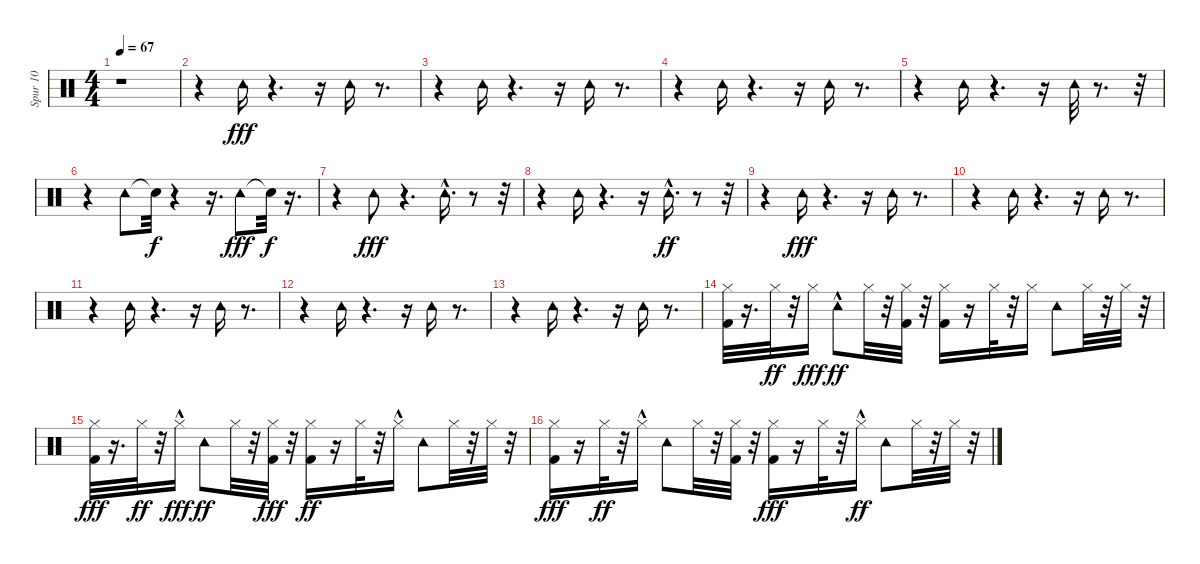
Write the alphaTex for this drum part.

\track ("Spur 10" "Spur 10") {instrument percussion}
\staff {score}
\articulation defaults
\ts (4 4)
\tempo 67
\clef neutral
\ks c
r.1{dy fff} |
r.4 "Tambourine (hit)".16 r.4{d} r.16 "Tambourine (hit)".16 r.8{d} |
r.4 "Tambourine (hit)".16 r.4{d} r.16 "Tambourine (hit)".16 r.8{d} |
r.4 "Tambourine (hit)".16 r.4{d} r.16 "Tambourine (hit)".16 r.8{d} |
r.4 "Tambourine (hit)".16 r.4{d} r.16 "Tambourine (hit)".32 r.8{d} r.32 |
r.4 "Tambourine (hit)".8 "Snare (hit)"{t}.32{dy f} r.4 r.16{d} "Tambourine (hit)".8{dy fff} "Snare (hit)"{t}.32{dy f} r.16{d} |
r.4 "Tambourine (hit)".8{dy fff} r.4{d} "Tambourine (hit)"{hac}.16{d} r.8 r.32 |
r.4 "Tambourine (hit)".16 r.4{d} r.16 "Tambourine (hit)"{hac}.16{d dy ff} r.8 r.32 |
r.4 "Tambourine (hit)".16{dy fff} r.4{d} r.16 "Tambourine (hit)".16 r.8{d} |
r.4 "Tambourine (hit)".16 r.4{d} r.16 "Tambourine (hit)".16 r.8{d} |
r.4 "Tambourine (hit)".16 r.4{d} r.16 "Tambourine (hit)".16 r.8{d} |
r.4 "Tambourine (hit)".16 r.4{d} r.16 "Tambourine (hit)".16 r.8{d} |
r.4 "Tambourine (hit)".16 r.4{d} r.16 "Tambourine (hit)".16 r.8{d} |
("Hi-Hat (closed)" "Kick (hit) 2").32 r.16{d} "Hi-Hat (closed)".32{dy ff} r.32 "Hi-Hat (closed)".16{dy fff} "Tambourine (hit)"{hac}.8{dy ff} "Hi-Hat (closed)".32 r.32 ("Hi-Hat (closed)" "Kick (hit) 2").32 r.32 ("Hi-Hat (closed)" "Kick (hit) 2").16 r.16 "Hi-Hat (closed)".32 r.32 "Hi-Hat (closed)".16 "Tambourine (hit)".8 "Hi-Hat (closed)".32 r.32 "Hi-Hat (closed)".32 r.32 |
("Hi-Hat (closed)" "Kick (hit) 2").32{dy fff} r.16{d} "Hi-Hat (closed)".32{dy ff} r.32 "Hi-Hat (closed)"{hac}.16{dy fff} "Tambourine (hit)".8{dy ff} "Hi-Hat (closed)".32 r.32 ("Hi-Hat (closed)" "Kick (hit) 2").32{dy fff} r.32 ("Hi-Hat (closed)" "Kick (hit) 2").16{dy ff} r.16 "Hi-Hat (closed)".32 r.32 "Hi-Hat (closed)"{hac}.16 "Tambourine (hit)".8 "Hi-Hat (closed)".32 r.32 "Hi-Hat (closed)".32 r.32 |
("Hi-Hat (closed)" "Kick (hit) 2").16{dy fff} r.16 "Hi-Hat (closed)".32{dy ff} r.32 "Hi-Hat (closed)"{hac}.16 "Tambourine (hit)".8 "Hi-Hat (closed)".32 r.32 ("Hi-Hat (closed)" "Kick (hit) 2").32 r.32 ("Hi-Hat (closed)" "Kick (hit) 2").16{dy fff} r.16 "Hi-Hat (closed)".32 r.32 "Hi-Hat (closed)"{hac}.16{dy ff} "Tambourine (hit)".8 "Hi-Hat (closed)".32 r.32 "Hi-Hat (closed)".32 r.32
